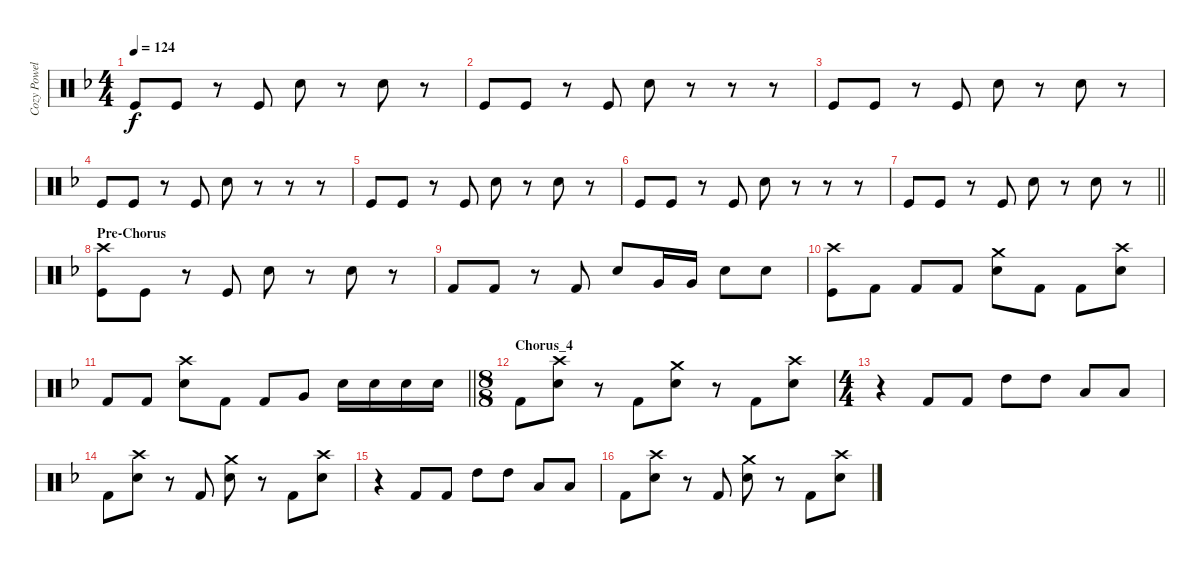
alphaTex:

\track ("Cozy Powell" "Cozy Powel") {instrument percussion}
\staff {score}
\articulation defaults
\ts (4 4)
\tempo 124
\clef neutral
\ks f "Kick (hit)".8{dy f} "Kick (hit)".8
r.8 "Kick (hit)".8 "Snare (hit) 2".8 r.8 "Snare (hit) 2".8 r.8 |
"Kick (hit)".8 "Kick (hit)".8 r.8 "Kick (hit)".8 "Snare (hit) 2".8 r.8 r.8 r.8 |
"Kick (hit)".8 "Kick (hit)".8 r.8 "Kick (hit)".8 "Snare (hit) 2".8 r.8 "Snare (hit) 2".8 r.8 |
"Kick (hit)".8 "Kick (hit)".8 r.8 "Kick (hit)".8 "Snare (hit) 2".8 r.8 r.8 r.8 |
"Kick (hit)".8 "Kick (hit)".8 r.8 "Kick (hit)".8 "Snare (hit) 2".8 r.8 "Snare (hit) 2".8 r.8 |
"Kick (hit)".8 "Kick (hit)".8 r.8 "Kick (hit)".8 "Snare (hit) 2".8 r.8 r.8 r.8 |
\barLineRight lightlight "Kick (hit)".8 "Kick (hit)".8
r.8 "Kick (hit)".8 "Snare (hit) 2".8 r.8 "Snare (hit) 2".8 r.8 |
\section ("" "Pre-Chorus")
("Kick (hit)" "Crash high (hit)").8 "Kick (hit)".8 r.8 "Kick (hit)".8 "Snare (hit) 2".8 r.8 "Snare (hit) 2".8 r.8 |
"Kick (hit) 2".8 "Kick (hit) 2".8 r.8 "Kick (hit) 2".8 "Snare (hit) 2".8 "Very Low Tom (hit)".16 "Very Low Tom (hit)".16 "Snare (hit) 2".8 "Snare (hit) 2".8 |
("Kick (hit)" "Crash high (hit)").8 "Kick (hit) 2".8 "Kick (hit) 2".8 "Kick (hit) 2".8 ("Snare (hit) 2" "Crash medium (hit)").8 "Kick (hit) 2".8 "Kick (hit) 2".8 ("Snare (hit) 2" "Crash high (hit)").8 |
\barLineRight lightlight "Kick (hit) 2".8 "Kick (hit) 2".8
("Snare (hit) 2" "Crash high (hit)").8 "Kick (hit) 2".8 "Kick (hit) 2".8 "Very Low Tom (hit)".8 "Snare (hit) 2".16 "Snare (hit) 2".16 "Snare (hit) 2".16 "Snare (hit) 2".16 |
\ts (8 8)
\section ("" "Chorus_4")
"Kick (hit) 2".8 ("Snare (hit) 2" "Crash high (hit)").8 r.8 "Kick (hit) 2".8 ("Snare (hit) 2" "Crash medium (hit)").8 r.8 "Kick (hit) 2".8 ("Snare (hit) 2" "Crash high (hit)").8 |
\ts (4 4)
r.4 "Kick (hit) 2".8 "Kick (hit) 2".8 "High Tom (hit)".8 "High Tom (hit)".8 "Low Tom (hit)".8 "Low Tom (hit)".8 |
"Kick (hit) 2".8 ("Snare (hit) 2" "Crash high (hit)").8 r.8 "Kick (hit) 2".8 ("Snare (hit) 2" "Crash medium (hit)").8 r.8 "Kick (hit) 2".8 ("Snare (hit) 2" "Crash high (hit)").8 |
r.4 "Kick (hit) 2".8 "Kick (hit) 2".8 "High Tom (hit)".8 "High Tom (hit)".8 "Low Tom (hit)".8 "Low Tom (hit)".8 |
"Kick (hit) 2".8 ("Snare (hit) 2" "Crash high (hit)").8 r.8 "Kick (hit) 2".8 ("Snare (hit) 2" "Crash medium (hit)").8 r.8 "Kick (hit) 2".8 ("Snare (hit) 2" "Crash high (hit)").8
